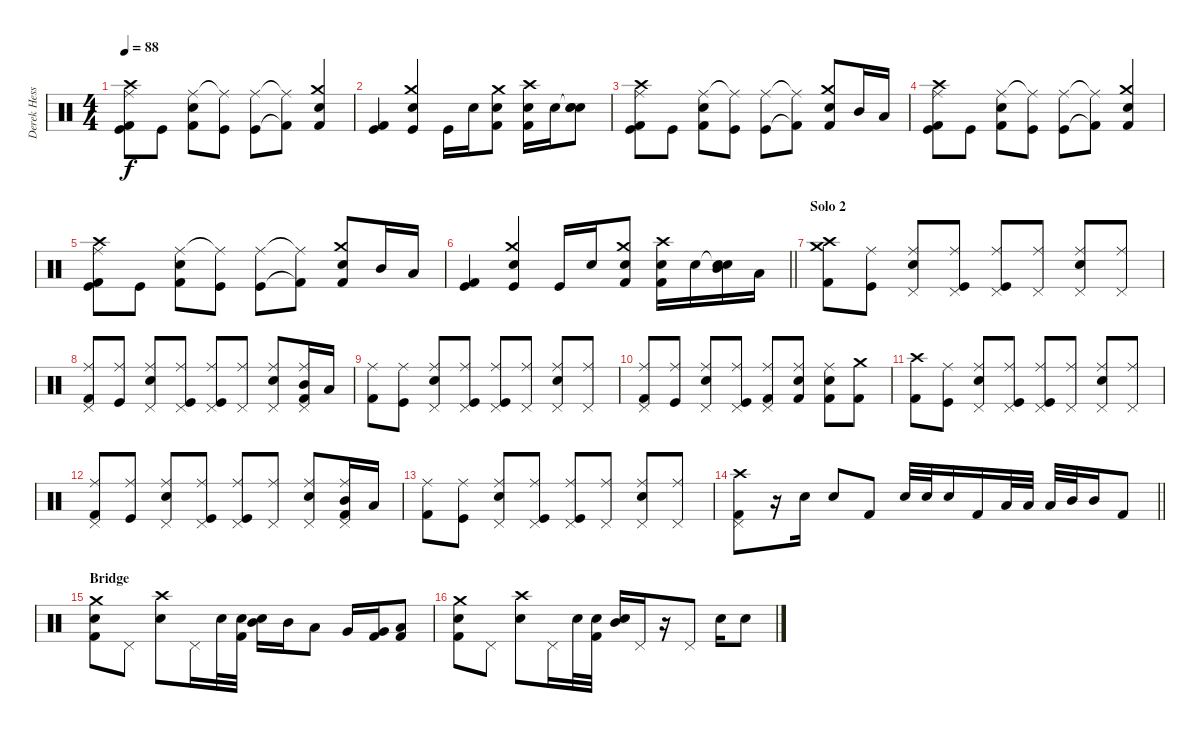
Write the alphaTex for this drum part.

\track ("Derek Hess" "Derek Hess") {instrument percussion}
\staff {score}
\articulation defaults
\ts (4 4)
\tempo 88
\clef neutral
\ks c
("Crash high (hit)" "Ride (middle)" "Kick (hit) 2" "Kick (hit)").8{dy f} "Kick (hit)".8 ("Ride (middle)" "Electric Snare (hit)" "Kick (hit) 2").8 ("Ride (middle)"{t} "Kick (hit)").8 ("Ride (middle)" "Kick (hit)").8 ("Ride (middle)"{t} "Kick (hit) 2"{t}).8 ("Crash medium (hit)" "Snare (hit) 2" "Kick (hit) 2").4 |
("Kick (hit) 2" "Kick (hit)").4 ("Crash medium (hit)" "Snare (hit) 2" "Kick (hit)").4 "Kick (hit)".16 "Electric Snare (hit)".16 ("Crash medium (hit)" "Electric Snare (hit)" "Kick (hit) 2").8 ("Crash high (hit)" "Snare (hit) 2" "Kick (hit) 2").16 "Electric Snare (hit)".16 ("Snare (hit)"{t} "Electric Snare (hit)" "Snare (hit) 2").8 |
("Crash high (hit)" "Ride (middle)" "Kick (hit) 2" "Kick (hit)").8 "Kick (hit)".8 ("Ride (middle)" "Electric Snare (hit)" "Kick (hit) 2").8 ("Ride (middle)"{t} "Kick (hit)").8 ("Ride (middle)" "Kick (hit)").8 ("Ride (middle)"{t} "Kick (hit) 2"{t}).8 ("Crash medium (hit)" "Snare (hit) 2" "Kick (hit) 2").8 "Mid Tom (hit)".16 "Low Tom (hit)".16 |
("Crash high (hit)" "Ride (middle)" "Kick (hit) 2" "Kick (hit)").8 "Kick (hit)".8 ("Ride (middle)" "Electric Snare (hit)" "Kick (hit) 2").8 ("Ride (middle)"{t} "Kick (hit)").8 ("Ride (middle)" "Kick (hit)").8 ("Ride (middle)"{t} "Kick (hit) 2"{t}).8 ("Crash medium (hit)" "Snare (hit) 2" "Kick (hit) 2").4 |
("Crash high (hit)" "Ride (middle)" "Kick (hit) 2" "Kick (hit)").8 "Kick (hit)".8 ("Ride (middle)" "Electric Snare (hit)" "Kick (hit) 2").8 ("Ride (middle)"{t} "Kick (hit)").8 ("Ride (middle)" "Kick (hit)").8 ("Ride (middle)"{t} "Kick (hit) 2"{t}).8 ("Crash medium (hit)" "Snare (hit) 2" "Kick (hit) 2").8 "Mid Tom (hit)".16 "Low Tom (hit)".16 |
\barLineRight lightlight
("Kick (hit) 2" "Kick (hit)").4 ("Crash medium (hit)" "Snare (hit) 2" "Kick (hit)").4 "Kick (hit)".16 "Electric Snare (hit)".16 ("Crash medium (hit)" "Snare (hit) 2" "Kick (hit) 2").8 ("Crash high (hit)" "Electric Snare (hit)" "Kick (hit) 2").16 "Electric Snare (hit)".16 ("Snare (hit)"{t} "Mid Tom (hit)" "Snare (hit) 2").16 "Low Tom (hit)".16 |
\section ("" "Solo 2")
("Crash high (hit)" "Crash medium (hit)" "Kick (hit) 2").8 ("Ride (middle)" "Kick (hit)").8 ("Ride (middle)" "Pedal Hi-Hat (hit)" "Electric Snare (hit)").8 ("Ride (middle)" "Pedal Hi-Hat (hit)" "Kick (hit)").8 ("Ride (middle)" "Pedal Hi-Hat (hit)" "Kick (hit)").8 ("Ride (middle)" "Pedal Hi-Hat (hit)").8 ("Ride (middle)" "Pedal Hi-Hat (hit)" "Electric Snare (hit)").8 ("Ride (middle)" "Pedal Hi-Hat (hit)").8 |
("Ride (middle)" "Pedal Hi-Hat (hit)" "Kick (hit) 2").8 ("Ride (middle)" "Kick (hit)").8 ("Ride (middle)" "Pedal Hi-Hat (hit)" "Electric Snare (hit)").8 ("Ride (middle)" "Pedal Hi-Hat (hit)" "Kick (hit)").8 ("Ride (middle)" "Pedal Hi-Hat (hit)" "Kick (hit)").8 ("Ride (middle)" "Pedal Hi-Hat (hit)").8 ("Ride (middle)" "Pedal Hi-Hat (hit)" "Electric Snare (hit)").8 ("Ride (middle)" "Pedal Hi-Hat (hit)" "Mid Tom (hit)" "Kick (hit) 2").16 "Low Tom (hit)".16 |
("Ride (middle)" "Kick (hit) 2").8 ("Ride (middle)" "Kick (hit)").8 ("Ride (middle)" "Pedal Hi-Hat (hit)" "Electric Snare (hit)").8 ("Ride (middle)" "Pedal Hi-Hat (hit)" "Kick (hit)").8 ("Ride (middle)" "Pedal Hi-Hat (hit)" "Kick (hit)").8 ("Ride (middle)" "Pedal Hi-Hat (hit)").8 ("Ride (middle)" "Pedal Hi-Hat (hit)" "Electric Snare (hit)").8 ("Ride (middle)" "Pedal Hi-Hat (hit)").8 |
("Ride (middle)" "Pedal Hi-Hat (hit)" "Kick (hit) 2").8 ("Ride (middle)" "Kick (hit)").8 ("Ride (middle)" "Pedal Hi-Hat (hit)" "Electric Snare (hit)").8 ("Ride (middle)" "Pedal Hi-Hat (hit)" "Kick (hit)").8 ("Ride (middle)" "Pedal Hi-Hat (hit)" "Kick (hit) 2").8 ("Ride (middle)" "Electric Snare (hit)" "Kick (hit) 2").8 ("Ride (middle)" "Electric Snare (hit)" "Kick (hit) 2").8 ("Crash medium (hit)" "Kick (hit) 2").8 |
("Crash high (hit)" "Kick (hit) 2").8 ("Ride (middle)" "Kick (hit)").8 ("Ride (middle)" "Pedal Hi-Hat (hit)" "Electric Snare (hit)").8 ("Ride (middle)" "Pedal Hi-Hat (hit)" "Kick (hit)").8 ("Ride (middle)" "Pedal Hi-Hat (hit)" "Kick (hit)").8 ("Ride (middle)" "Pedal Hi-Hat (hit)").8 ("Ride (middle)" "Pedal Hi-Hat (hit)" "Electric Snare (hit)").8 ("Ride (middle)" "Pedal Hi-Hat (hit)").8 |
("Ride (middle)" "Pedal Hi-Hat (hit)" "Kick (hit) 2").8 ("Ride (middle)" "Kick (hit)").8 ("Ride (middle)" "Pedal Hi-Hat (hit)" "Electric Snare (hit)").8 ("Ride (middle)" "Pedal Hi-Hat (hit)" "Kick (hit)").8 ("Ride (middle)" "Pedal Hi-Hat (hit)" "Kick (hit)").8 ("Ride (middle)" "Pedal Hi-Hat (hit)").8 ("Ride (middle)" "Pedal Hi-Hat (hit)" "Electric Snare (hit)").8 ("Ride (middle)" "Pedal Hi-Hat (hit)" "Mid Tom (hit)" "Kick (hit) 2").16 "Low Tom (hit)".16 |
("Ride (middle)" "Kick (hit) 2").8 ("Ride (middle)" "Kick (hit)").8 ("Ride (middle)" "Pedal Hi-Hat (hit)" "Electric Snare (hit)").8 ("Ride (middle)" "Pedal Hi-Hat (hit)" "Kick (hit)").8 ("Ride (middle)" "Pedal Hi-Hat (hit)" "Kick (hit)").8 ("Ride (middle)" "Pedal Hi-Hat (hit)").8 ("Ride (middle)" "Pedal Hi-Hat (hit)" "Electric Snare (hit)").8 ("Ride (middle)" "Pedal Hi-Hat (hit)").8 |
\barLineRight lightlight
("Crash high (hit)" "Pedal Hi-Hat (hit)" "Kick (hit) 2").8 r.16 "Electric Snare (hit)".16 "Electric Snare (hit)".8 "Kick (hit) 2".8 "Electric Snare (hit)".32 "Electric Snare (hit)".32 "Electric Snare (hit)".16 "Kick (hit) 2".16 "Low Tom (hit)".32 "Low Tom (hit)".32 "Low Tom (hit)".32 "Mid Tom (hit)".32 "Mid Tom (hit)".16 "Kick (hit) 2".8 |
\section ("" "Bridge")
("Crash medium (hit)" "Electric Snare (hit)" "Kick (hit) 2").8 "Pedal Hi-Hat (hit)".8 ("Crash high (hit)" "Electric Snare (hit)").8 "Pedal Hi-Hat (hit)".16 "Electric Snare (hit)".32 ("Electric Snare (hit)" "Kick (hit) 2").32 ("Electric Snare (hit)" "Mid Tom (hit)").16 "Mid Tom (hit)".16 "Low Tom (hit)".8 "Very Low Tom (hit)".16 ("Very Low Tom (hit)" "Kick (hit) 2").16 ("Low Floor Tom (hit)" "Kick (hit) 2").8 |
("Crash medium (hit)" "Electric Snare (hit)" "Kick (hit) 2").8 "Pedal Hi-Hat (hit)".8 ("Crash high (hit)" "Electric Snare (hit)").8 "Pedal Hi-Hat (hit)".16 "Electric Snare (hit)".32 ("Electric Snare (hit)" "Kick (hit) 2").32 ("Electric Snare (hit)" "Mid Tom (hit)").16 "Pedal Hi-Hat (hit)".16 r.16 "Pedal Hi-Hat (hit)".8 "Electric Snare (hit)".16 "Electric Snare (hit)".8
